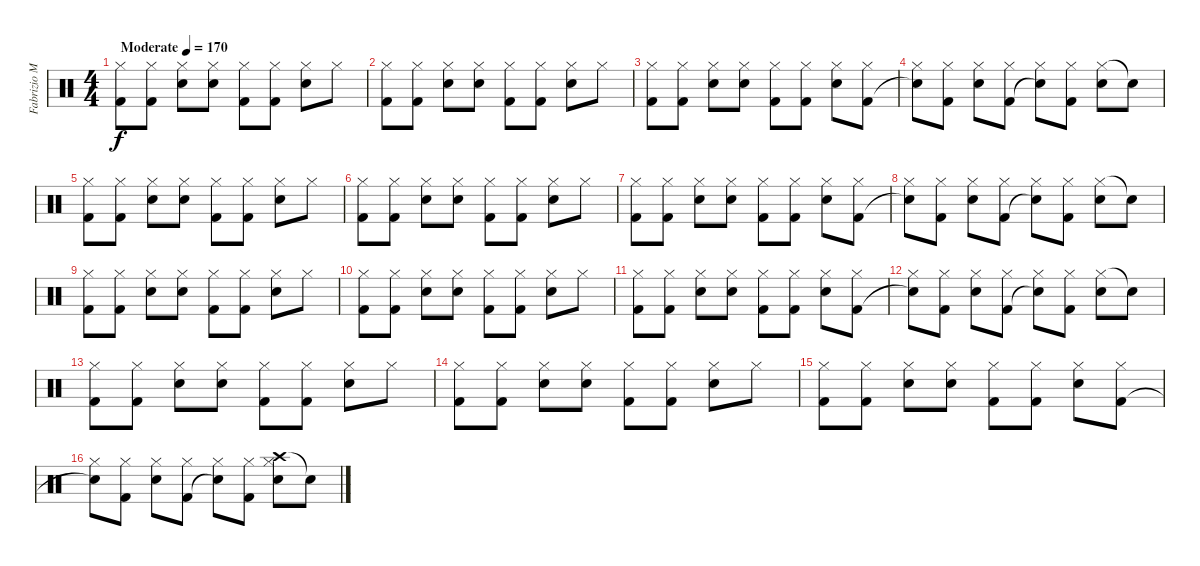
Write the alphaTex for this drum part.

\track ("Fabrizio Moretti" "Fabrizio M") {instrument percussion}
\staff {score}
\articulation defaults
\ts (4 4)
\tempo (170 "Moderate")
\clef neutral
\ks c
("Hi-Hat (closed)" "Kick (hit) 2").8{dy f} ("Hi-Hat (closed)" "Kick (hit) 2").8 ("Hi-Hat (closed)" "Electric Snare (hit)").8 ("Hi-Hat (closed)" "Electric Snare (hit)").8 ("Hi-Hat (closed)" "Kick (hit) 2").8 ("Hi-Hat (closed)" "Kick (hit) 2").8 ("Hi-Hat (closed)" "Electric Snare (hit)").8 "Hi-Hat (closed)".8 |
("Hi-Hat (closed)" "Kick (hit) 2").8 ("Hi-Hat (closed)" "Kick (hit) 2").8 ("Hi-Hat (closed)" "Electric Snare (hit)").8 ("Hi-Hat (closed)" "Electric Snare (hit)").8 ("Hi-Hat (closed)" "Kick (hit) 2").8 ("Hi-Hat (closed)" "Kick (hit) 2").8 ("Hi-Hat (closed)" "Electric Snare (hit)").8 "Hi-Hat (closed)".8 |
("Hi-Hat (closed)" "Kick (hit) 2").8 ("Hi-Hat (closed)" "Kick (hit) 2").8 ("Hi-Hat (closed)" "Electric Snare (hit)").8 ("Hi-Hat (closed)" "Electric Snare (hit)").8 ("Hi-Hat (closed)" "Kick (hit) 2").8 ("Hi-Hat (closed)" "Kick (hit) 2").8 ("Hi-Hat (closed)" "Electric Snare (hit)").8 ("Hi-Hat (closed)" "Kick (hit) 2").8 |
("Hi-Hat (closed)" "Snare (hit)"{t}).8 ("Hi-Hat (closed)" "Kick (hit) 2").8 ("Hi-Hat (closed)" "Electric Snare (hit)").8 ("Hi-Hat (closed)" "Kick (hit) 2").8 ("Hi-Hat (closed)" "Snare (hit)"{t}).8 ("Hi-Hat (closed)" "Kick (hit) 2").8 ("Hi-Hat (closed)" "Electric Snare (hit)").8 "Snare (hit)"{t}.8 |
("Hi-Hat (closed)" "Kick (hit) 2").8 ("Hi-Hat (closed)" "Kick (hit) 2").8 ("Hi-Hat (closed)" "Electric Snare (hit)").8 ("Hi-Hat (closed)" "Electric Snare (hit)").8 ("Hi-Hat (closed)" "Kick (hit) 2").8 ("Hi-Hat (closed)" "Kick (hit) 2").8 ("Hi-Hat (closed)" "Electric Snare (hit)").8 "Hi-Hat (closed)".8 |
("Hi-Hat (closed)" "Kick (hit) 2").8 ("Hi-Hat (closed)" "Kick (hit) 2").8 ("Hi-Hat (closed)" "Electric Snare (hit)").8 ("Hi-Hat (closed)" "Electric Snare (hit)").8 ("Hi-Hat (closed)" "Kick (hit) 2").8 ("Hi-Hat (closed)" "Kick (hit) 2").8 ("Hi-Hat (closed)" "Electric Snare (hit)").8 "Hi-Hat (closed)".8 |
("Hi-Hat (closed)" "Kick (hit) 2").8 ("Hi-Hat (closed)" "Kick (hit) 2").8 ("Hi-Hat (closed)" "Electric Snare (hit)").8 ("Hi-Hat (closed)" "Electric Snare (hit)").8 ("Hi-Hat (closed)" "Kick (hit) 2").8 ("Hi-Hat (closed)" "Kick (hit) 2").8 ("Hi-Hat (closed)" "Electric Snare (hit)").8 ("Hi-Hat (closed)" "Kick (hit) 2").8 |
("Hi-Hat (closed)" "Snare (hit)"{t}).8 ("Hi-Hat (closed)" "Kick (hit) 2").8 ("Hi-Hat (closed)" "Electric Snare (hit)").8 ("Hi-Hat (closed)" "Kick (hit) 2").8 ("Hi-Hat (closed)" "Snare (hit)"{t}).8 ("Hi-Hat (closed)" "Kick (hit) 2").8 ("Hi-Hat (closed)" "Electric Snare (hit)").8 "Snare (hit)"{t}.8 |
("Hi-Hat (closed)" "Kick (hit) 2").8 ("Hi-Hat (closed)" "Kick (hit) 2").8 ("Hi-Hat (closed)" "Electric Snare (hit)").8 ("Hi-Hat (closed)" "Electric Snare (hit)").8 ("Hi-Hat (closed)" "Kick (hit) 2").8 ("Hi-Hat (closed)" "Kick (hit) 2").8 ("Hi-Hat (closed)" "Electric Snare (hit)").8 "Hi-Hat (closed)".8 |
("Hi-Hat (closed)" "Kick (hit) 2").8 ("Hi-Hat (closed)" "Kick (hit) 2").8 ("Hi-Hat (closed)" "Electric Snare (hit)").8 ("Hi-Hat (closed)" "Electric Snare (hit)").8 ("Hi-Hat (closed)" "Kick (hit) 2").8 ("Hi-Hat (closed)" "Kick (hit) 2").8 ("Hi-Hat (closed)" "Electric Snare (hit)").8 "Hi-Hat (closed)".8 |
("Hi-Hat (closed)" "Kick (hit) 2").8 ("Hi-Hat (closed)" "Kick (hit) 2").8 ("Hi-Hat (closed)" "Electric Snare (hit)").8 ("Hi-Hat (closed)" "Electric Snare (hit)").8 ("Hi-Hat (closed)" "Kick (hit) 2").8 ("Hi-Hat (closed)" "Kick (hit) 2").8 ("Hi-Hat (closed)" "Electric Snare (hit)").8 ("Hi-Hat (closed)" "Kick (hit) 2").8 |
("Hi-Hat (closed)" "Snare (hit)"{t}).8 ("Hi-Hat (closed)" "Kick (hit) 2").8 ("Hi-Hat (closed)" "Electric Snare (hit)").8 ("Hi-Hat (closed)" "Kick (hit) 2").8 ("Hi-Hat (closed)" "Snare (hit)"{t}).8 ("Hi-Hat (closed)" "Kick (hit) 2").8 ("Hi-Hat (closed)" "Electric Snare (hit)").8 "Snare (hit)"{t}.8 |
("Hi-Hat (closed)" "Kick (hit) 2").8 ("Hi-Hat (closed)" "Kick (hit) 2").8 ("Hi-Hat (closed)" "Electric Snare (hit)").8 ("Hi-Hat (closed)" "Electric Snare (hit)").8 ("Hi-Hat (closed)" "Kick (hit) 2").8 ("Hi-Hat (closed)" "Kick (hit) 2").8 ("Hi-Hat (closed)" "Electric Snare (hit)").8 "Hi-Hat (closed)".8 |
("Hi-Hat (closed)" "Kick (hit) 2").8 ("Hi-Hat (closed)" "Kick (hit) 2").8 ("Hi-Hat (closed)" "Electric Snare (hit)").8 ("Hi-Hat (closed)" "Electric Snare (hit)").8 ("Hi-Hat (closed)" "Kick (hit) 2").8 ("Hi-Hat (closed)" "Kick (hit) 2").8 ("Hi-Hat (closed)" "Electric Snare (hit)").8 "Hi-Hat (closed)".8 |
("Hi-Hat (closed)" "Kick (hit) 2").8 ("Hi-Hat (closed)" "Kick (hit) 2").8 ("Hi-Hat (closed)" "Electric Snare (hit)").8 ("Hi-Hat (closed)" "Electric Snare (hit)").8 ("Hi-Hat (closed)" "Kick (hit) 2").8 ("Hi-Hat (closed)" "Kick (hit) 2").8 ("Hi-Hat (closed)" "Electric Snare (hit)").8 ("Hi-Hat (closed)" "Kick (hit) 2").8 |
("Hi-Hat (closed)" "Snare (hit)"{t}).8 ("Hi-Hat (closed)" "Kick (hit) 2").8 ("Hi-Hat (closed)" "Electric Snare (hit)").8 ("Hi-Hat (closed)" "Kick (hit) 2").8 ("Hi-Hat (closed)" "Snare (hit)"{t}).8 ("Hi-Hat (closed)" "Kick (hit) 2").8 ("Crash high (hit)" "Hi-Hat (closed)" "Electric Snare (hit)").8 "Snare (hit)"{t}.8
